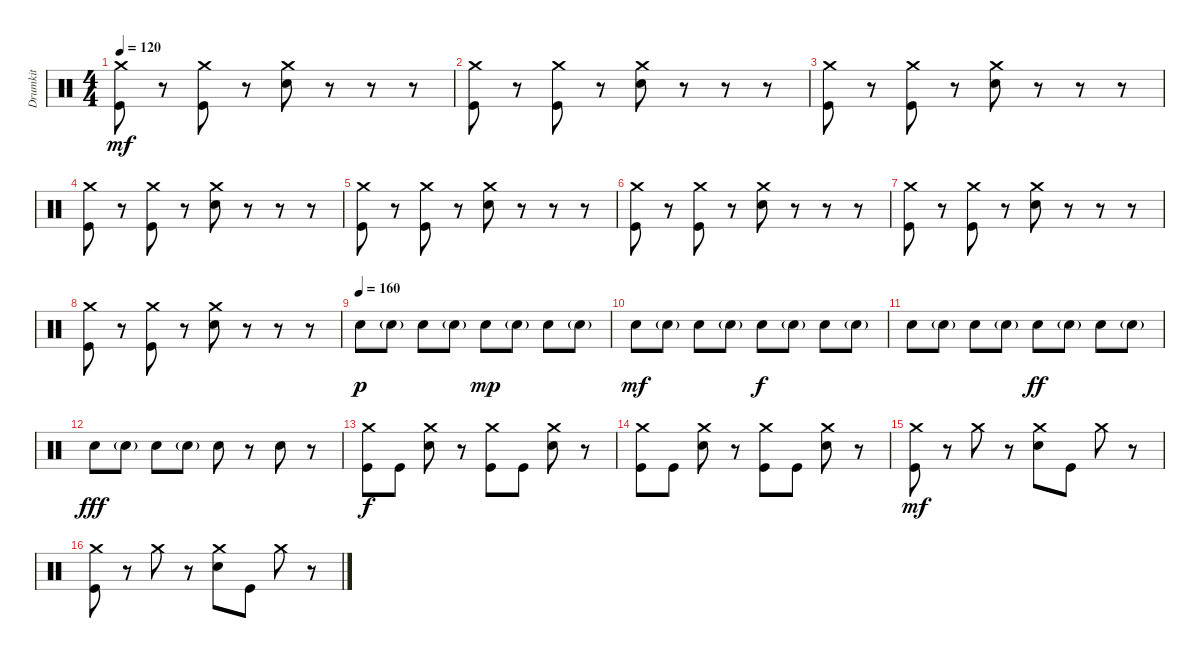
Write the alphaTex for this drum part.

\track ("Drumkit" "Drumkit") {instrument percussion}
\staff {score}
\articulation defaults
\ts (4 4)
\tempo 120
\clef neutral
\ks c
("Crash medium (hit)" "Kick (hit)").8{dy mf} r.8 ("Crash medium (hit)" "Kick (hit)").8 r.8 ("Crash medium (hit)" "Snare (hit) 2").8 r.8 r.8 r.8 |
("Crash medium (hit)" "Kick (hit)").8 r.8 ("Crash medium (hit)" "Kick (hit)").8 r.8 ("Crash medium (hit)" "Snare (hit) 2").8 r.8 r.8 r.8 |
("Crash medium (hit)" "Kick (hit)").8 r.8 ("Crash medium (hit)" "Kick (hit)").8 r.8 ("Crash medium (hit)" "Snare (hit) 2").8 r.8 r.8 r.8 |
("Crash medium (hit)" "Kick (hit)").8 r.8 ("Crash medium (hit)" "Kick (hit)").8 r.8 ("Crash medium (hit)" "Snare (hit) 2").8 r.8 r.8 r.8 |
("Crash medium (hit)" "Kick (hit)").8 r.8 ("Crash medium (hit)" "Kick (hit)").8 r.8 ("Crash medium (hit)" "Snare (hit) 2").8 r.8 r.8 r.8 |
("Crash medium (hit)" "Kick (hit)").8 r.8 ("Crash medium (hit)" "Kick (hit)").8 r.8 ("Crash medium (hit)" "Snare (hit) 2").8 r.8 r.8 r.8 |
("Crash medium (hit)" "Kick (hit)").8 r.8 ("Crash medium (hit)" "Kick (hit)").8 r.8 ("Crash medium (hit)" "Snare (hit) 2").8 r.8 r.8 r.8 |
("Crash medium (hit)" "Kick (hit)").8 r.8 ("Crash medium (hit)" "Kick (hit)").8 r.8 ("Crash medium (hit)" "Snare (hit) 2").8 r.8 r.8 r.8 |
\tempo (160)
"Snare (hit) 2".8{dy p} "Snare (hit) 2"{g}.8 "Snare (hit) 2".8 "Snare (hit) 2"{g}.8 "Snare (hit) 2".8{dy mp} "Snare (hit) 2"{g}.8 "Snare (hit) 2".8 "Snare (hit) 2"{g}.8 |
"Snare (hit) 2".8{dy mf} "Snare (hit) 2"{g}.8 "Snare (hit) 2".8 "Snare (hit) 2"{g}.8 "Snare (hit) 2".8{dy f} "Snare (hit) 2"{g}.8 "Snare (hit) 2".8 "Snare (hit) 2"{g}.8 |
"Snare (hit) 2".8 "Snare (hit) 2"{g}.8 "Snare (hit) 2".8 "Snare (hit) 2"{g}.8 "Snare (hit) 2".8{dy ff} "Snare (hit) 2"{g}.8 "Snare (hit) 2".8 "Snare (hit) 2"{g}.8 |
"Snare (hit) 2".8{dy fff} "Snare (hit) 2"{g}.8 "Snare (hit) 2".8 "Snare (hit) 2"{g}.8 "Snare (hit) 2".8 r.8 "Snare (hit) 2".8 r.8 |
("Kick (hit)" "Crash medium (hit)").8{dy f} "Kick (hit)".8 ("Snare (hit) 2" "Crash medium (hit)").8 r.8 ("Kick (hit)" "Crash medium (hit)").8 "Kick (hit)".8 ("Snare (hit) 2" "Crash medium (hit)").8 r.8 |
("Kick (hit)" "Crash medium (hit)").8 "Kick (hit)".8 ("Snare (hit) 2" "Crash medium (hit)").8 r.8 ("Kick (hit)" "Crash medium (hit)").8 "Kick (hit)".8 ("Snare (hit) 2" "Crash medium (hit)").8 r.8 |
("Kick (hit)" "Crash medium (hit)").8{dy mf} r.8 "Crash medium (hit)".8 r.8 ("Snare (hit) 2" "Crash medium (hit)").8 "Kick (hit)".8 "Crash medium (hit)".8 r.8 |
("Kick (hit)" "Crash medium (hit)").8 r.8 "Crash medium (hit)".8 r.8 ("Snare (hit) 2" "Crash medium (hit)").8 "Kick (hit)".8 "Crash medium (hit)".8 r.8
